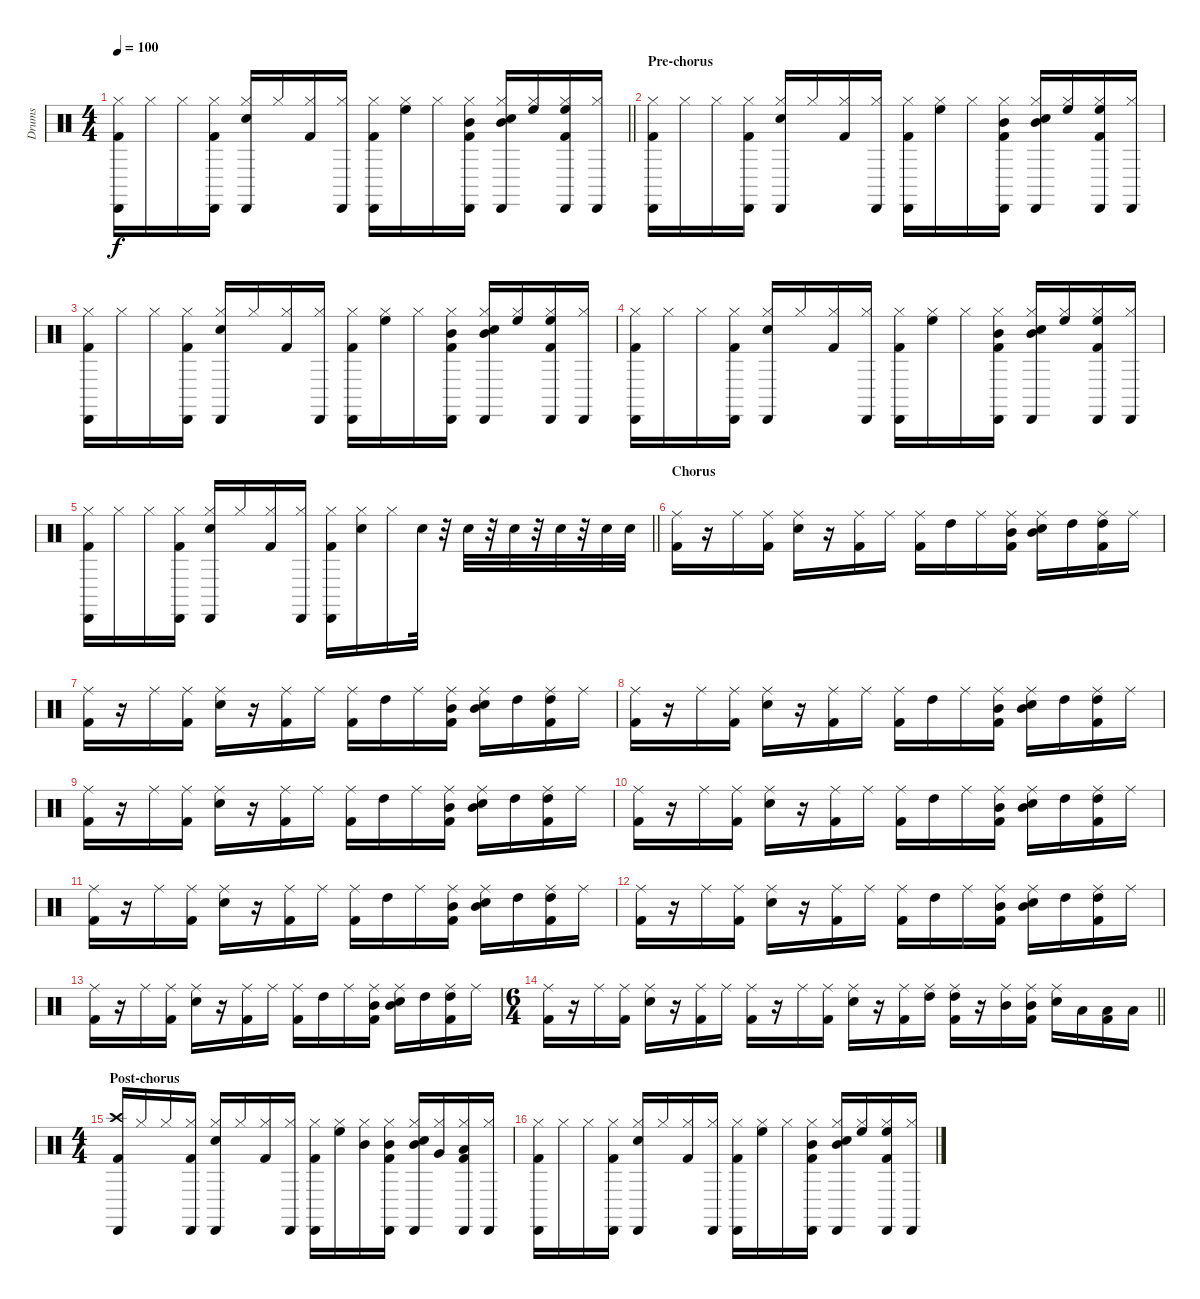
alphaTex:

\track ("Drums" "Drums") {instrument percussion}
\staff {score}
\articulation defaults
\ts (4 4)
\tempo 100
\clef neutral
\barLineRight lightlight
\ks c
("Hi-Hat (closed)" "Cabasa (hit)" "Kick (hit) 2").16{dy f} "Hi-Hat (closed)".16 "Hi-Hat (closed)".16 ("Hi-Hat (closed)" "Cabasa (hit)" "Kick (hit) 2").16 ("Hi-Hat (closed)" "Cabasa (hit)" "Snare (hit) 2").16 "Hi-Hat (closed)".16 ("Hi-Hat (closed)" "Kick (hit) 2").16 ("Hi-Hat (closed)" "Cabasa (hit)").16 ("Hi-Hat (closed)" "Cabasa (hit)" "Kick (hit) 2").16 ("Hi-Hat (closed)" "High Floor Tom (hit)").16 "Hi-Hat (closed)".16 ("Hi-Hat (closed)" "Cabasa (hit)" "Mid Tom (hit)" "Kick (hit) 2").16 ("Hi-Hat (closed)" "Cabasa (hit)" "Mid Tom (hit)" "Snare (hit) 2").16 ("Hi-Hat (closed)" "High Floor Tom (hit)").16 ("Hi-Hat (closed)" "Cabasa (hit)" "High Floor Tom (hit)" "Kick (hit) 2").16 ("Hi-Hat (closed)" "Cabasa (hit)").16 |
\section ("" "Pre-chorus")
("Hi-Hat (closed)" "Cabasa (hit)" "Kick (hit) 2").16 "Hi-Hat (closed)".16 "Hi-Hat (closed)".16 ("Hi-Hat (closed)" "Cabasa (hit)" "Kick (hit) 2").16 ("Hi-Hat (closed)" "Cabasa (hit)" "Snare (hit) 2").16 "Hi-Hat (closed)".16 ("Hi-Hat (closed)" "Kick (hit) 2").16 ("Hi-Hat (closed)" "Cabasa (hit)").16 ("Hi-Hat (closed)" "Cabasa (hit)" "Kick (hit) 2").16 ("Hi-Hat (closed)" "High Floor Tom (hit)").16 "Hi-Hat (closed)".16 ("Hi-Hat (closed)" "Cabasa (hit)" "Mid Tom (hit)" "Kick (hit) 2").16 ("Hi-Hat (closed)" "Cabasa (hit)" "Mid Tom (hit)" "Snare (hit) 2").16 ("Hi-Hat (closed)" "High Floor Tom (hit)").16 ("Hi-Hat (closed)" "Cabasa (hit)" "High Floor Tom (hit)" "Kick (hit) 2").16 ("Hi-Hat (closed)" "Cabasa (hit)").16 |
("Hi-Hat (closed)" "Cabasa (hit)" "Kick (hit) 2").16 "Hi-Hat (closed)".16 "Hi-Hat (closed)".16 ("Hi-Hat (closed)" "Cabasa (hit)" "Kick (hit) 2").16 ("Hi-Hat (closed)" "Cabasa (hit)" "Snare (hit) 2").16 "Hi-Hat (closed)".16 ("Hi-Hat (closed)" "Kick (hit) 2").16 ("Hi-Hat (closed)" "Cabasa (hit)").16 ("Hi-Hat (closed)" "Cabasa (hit)" "Kick (hit) 2").16 ("Hi-Hat (closed)" "High Floor Tom (hit)").16 "Hi-Hat (closed)".16 ("Hi-Hat (closed)" "Cabasa (hit)" "Mid Tom (hit)" "Kick (hit) 2").16 ("Hi-Hat (closed)" "Cabasa (hit)" "Mid Tom (hit)" "Snare (hit) 2").16 ("Hi-Hat (closed)" "High Floor Tom (hit)").16 ("Hi-Hat (closed)" "Cabasa (hit)" "High Floor Tom (hit)" "Kick (hit) 2").16 ("Hi-Hat (closed)" "Cabasa (hit)").16 |
("Hi-Hat (closed)" "Cabasa (hit)" "Kick (hit) 2").16 "Hi-Hat (closed)".16 "Hi-Hat (closed)".16 ("Hi-Hat (closed)" "Cabasa (hit)" "Kick (hit) 2").16 ("Hi-Hat (closed)" "Cabasa (hit)" "Snare (hit) 2").16 "Hi-Hat (closed)".16 ("Hi-Hat (closed)" "Kick (hit) 2").16 ("Hi-Hat (closed)" "Cabasa (hit)").16 ("Hi-Hat (closed)" "Cabasa (hit)" "Kick (hit) 2").16 ("Hi-Hat (closed)" "High Floor Tom (hit)").16 "Hi-Hat (closed)".16 ("Hi-Hat (closed)" "Cabasa (hit)" "Mid Tom (hit)" "Kick (hit) 2").16 ("Hi-Hat (closed)" "Cabasa (hit)" "Mid Tom (hit)" "Snare (hit) 2").16 ("Hi-Hat (closed)" "High Floor Tom (hit)").16 ("Hi-Hat (closed)" "Cabasa (hit)" "High Floor Tom (hit)" "Kick (hit) 2").16 ("Hi-Hat (closed)" "Cabasa (hit)").16 |
\barLineRight lightlight
("Hi-Hat (closed)" "Cabasa (hit)" "Kick (hit) 2").16 "Hi-Hat (closed)".16 "Hi-Hat (closed)".16 ("Hi-Hat (closed)" "Cabasa (hit)" "Kick (hit) 2").16 ("Hi-Hat (closed)" "Cabasa (hit)" "Snare (hit) 2").16 "Hi-Hat (closed)".16 ("Hi-Hat (closed)" "Kick (hit) 2").16 ("Hi-Hat (closed)" "Cabasa (hit)").16 ("Hi-Hat (closed)" "Cabasa (hit)" "Kick (hit) 2").16 ("Hi-Hat (closed)" "Snare (hit) 2").16 "Hi-Hat (closed)".16 "Snare (hit) 2".32 r.32 "Snare (hit) 2".32 r.32 "Snare (hit) 2".32 r.32 "Snare (hit) 2".32 r.32 "Snare (hit) 2".32 "Snare (hit) 2".32 |
\section ("" "Chorus")
("Ride (middle)" "Kick (hit) 2").16 r.16 "Ride (middle)".16 ("Ride (middle)" "Kick (hit) 2").16 ("Ride (middle)" "Snare (hit) 2").16 r.16 ("Ride (middle)" "Kick (hit) 2").16 "Ride (middle)".16 ("Ride (middle)" "Kick (hit) 2").16 "High Tom (hit)".16 "Ride (middle)".16 ("Ride (middle)" "Mid Tom (hit)" "Kick (hit) 2").16 ("Ride (middle)" "Mid Tom (hit)" "Snare (hit) 2").16 "High Tom (hit)".16 ("Ride (middle)" "High Tom (hit)" "Kick (hit) 2").16 "Ride (middle)".16 |
("Ride (middle)" "Kick (hit) 2").16 r.16 "Ride (middle)".16 ("Ride (middle)" "Kick (hit) 2").16 ("Ride (middle)" "Snare (hit) 2").16 r.16 ("Ride (middle)" "Kick (hit) 2").16 "Ride (middle)".16 ("Ride (middle)" "Kick (hit) 2").16 "High Tom (hit)".16 "Ride (middle)".16 ("Ride (middle)" "Mid Tom (hit)" "Kick (hit) 2").16 ("Ride (middle)" "Mid Tom (hit)" "Snare (hit) 2").16 "High Tom (hit)".16 ("Ride (middle)" "High Tom (hit)" "Kick (hit) 2").16 "Ride (middle)".16 |
("Ride (middle)" "Kick (hit) 2").16 r.16 "Ride (middle)".16 ("Ride (middle)" "Kick (hit) 2").16 ("Ride (middle)" "Snare (hit) 2").16 r.16 ("Ride (middle)" "Kick (hit) 2").16 "Ride (middle)".16 ("Ride (middle)" "Kick (hit) 2").16 "High Tom (hit)".16 "Ride (middle)".16 ("Ride (middle)" "Mid Tom (hit)" "Kick (hit) 2").16 ("Ride (middle)" "Mid Tom (hit)" "Snare (hit) 2").16 "High Tom (hit)".16 ("Ride (middle)" "High Tom (hit)" "Kick (hit) 2").16 "Ride (middle)".16 |
("Ride (middle)" "Kick (hit) 2").16 r.16 "Ride (middle)".16 ("Ride (middle)" "Kick (hit) 2").16 ("Ride (middle)" "Snare (hit) 2").16 r.16 ("Ride (middle)" "Kick (hit) 2").16 "Ride (middle)".16 ("Ride (middle)" "Kick (hit) 2").16 "High Tom (hit)".16 "Ride (middle)".16 ("Ride (middle)" "Mid Tom (hit)" "Kick (hit) 2").16 ("Ride (middle)" "Mid Tom (hit)" "Snare (hit) 2").16 "High Tom (hit)".16 ("Ride (middle)" "High Tom (hit)" "Kick (hit) 2").16 "Ride (middle)".16 |
("Ride (middle)" "Kick (hit) 2").16 r.16 "Ride (middle)".16 ("Ride (middle)" "Kick (hit) 2").16 ("Ride (middle)" "Snare (hit) 2").16 r.16 ("Ride (middle)" "Kick (hit) 2").16 "Ride (middle)".16 ("Ride (middle)" "Kick (hit) 2").16 "High Tom (hit)".16 "Ride (middle)".16 ("Ride (middle)" "Mid Tom (hit)" "Kick (hit) 2").16 ("Ride (middle)" "Mid Tom (hit)" "Snare (hit) 2").16 "High Tom (hit)".16 ("Ride (middle)" "High Tom (hit)" "Kick (hit) 2").16 "Ride (middle)".16 |
("Ride (middle)" "Kick (hit) 2").16 r.16 "Ride (middle)".16 ("Ride (middle)" "Kick (hit) 2").16 ("Ride (middle)" "Snare (hit) 2").16 r.16 ("Ride (middle)" "Kick (hit) 2").16 "Ride (middle)".16 ("Ride (middle)" "Kick (hit) 2").16 "High Tom (hit)".16 "Ride (middle)".16 ("Ride (middle)" "Mid Tom (hit)" "Kick (hit) 2").16 ("Ride (middle)" "Mid Tom (hit)" "Snare (hit) 2").16 "High Tom (hit)".16 ("Ride (middle)" "High Tom (hit)" "Kick (hit) 2").16 "Ride (middle)".16 |
("Ride (middle)" "Kick (hit) 2").16 r.16 "Ride (middle)".16 ("Ride (middle)" "Kick (hit) 2").16 ("Ride (middle)" "Snare (hit) 2").16 r.16 ("Ride (middle)" "Kick (hit) 2").16 "Ride (middle)".16 ("Ride (middle)" "Kick (hit) 2").16 "High Tom (hit)".16 "Ride (middle)".16 ("Ride (middle)" "Mid Tom (hit)" "Kick (hit) 2").16 ("Ride (middle)" "Mid Tom (hit)" "Snare (hit) 2").16 "High Tom (hit)".16 ("Ride (middle)" "High Tom (hit)" "Kick (hit) 2").16 "Ride (middle)".16 |
("Ride (middle)" "Kick (hit) 2").16 r.16 "Ride (middle)".16 ("Ride (middle)" "Kick (hit) 2").16 ("Ride (middle)" "Snare (hit) 2").16 r.16 ("Ride (middle)" "Kick (hit) 2").16 "Ride (middle)".16 ("Ride (middle)" "Kick (hit) 2").16 "High Tom (hit)".16 "Ride (middle)".16 ("Ride (middle)" "Mid Tom (hit)" "Kick (hit) 2").16 ("Ride (middle)" "Mid Tom (hit)" "Snare (hit) 2").16 "High Tom (hit)".16 ("Ride (middle)" "High Tom (hit)" "Kick (hit) 2").16 "Ride (middle)".16 |
\ts (6 4)
\barLineRight lightlight
("Ride (middle)" "Kick (hit) 2").16 r.16 "Ride (middle)".16 ("Ride (middle)" "Kick (hit) 2").16 ("Ride (middle)" "Snare (hit) 2").16 r.16 ("Ride (middle)" "Kick (hit) 2").16 "Ride (middle)".16 ("Ride (middle)" "Kick (hit) 2").16 r.16 "Ride (middle)".16 ("Ride (middle)" "Kick (hit) 2").16 ("Ride (middle)" "Snare (hit) 2").16 r.16 ("Ride (middle)" "Kick (hit) 2").16 ("Ride (middle)" "High Tom (hit)").16 ("Ride (middle)" "High Tom (hit)" "Kick (hit) 2").16 r.16 ("Ride (middle)" "Mid Tom (hit)").16 ("Ride (middle)" "Mid Tom (hit)" "Kick (hit) 2").16 ("Ride (middle)" "Snare (hit) 2").16 "Low Tom (hit)".16 ("Low Tom (hit)" "Kick (hit) 2").16 "Low Tom (hit)".16 |
\ts (4 4)
\section ("" "Post-chorus")
("Cabasa (hit)" "Crash high (hit)" "Kick (hit) 2").16 "Hi-Hat (closed)".16 "Hi-Hat (closed)".16 ("Hi-Hat (closed)" "Cabasa (hit)" "Kick (hit) 2").16 ("Hi-Hat (closed)" "Cabasa (hit)" "Snare (hit) 2").16 "Hi-Hat (closed)".16 ("Hi-Hat (closed)" "Kick (hit) 2").16 ("Hi-Hat (closed)" "Cabasa (hit)").16 ("Hi-Hat (closed)" "Cabasa (hit)" "Kick (hit) 2").16 ("Hi-Hat (closed)" "High Floor Tom (hit)").16 ("Hi-Hat (closed)" "Mid Tom (hit)").16 ("Hi-Hat (closed)" "Cabasa (hit)" "Mid Tom (hit)" "Kick (hit) 2").16 ("Hi-Hat (closed)" "Cabasa (hit)" "Mid Tom (hit)" "Snare (hit) 2").16 ("Hi-Hat (closed)" "Very Low Tom (hit)").16 ("Hi-Hat (closed)" "Cabasa (hit)" "Low Tom (hit)" "Kick (hit) 2").16 ("Hi-Hat (closed)" "Cabasa (hit)").16 |
("Hi-Hat (closed)" "Cabasa (hit)" "Kick (hit) 2").16 "Hi-Hat (closed)".16 "Hi-Hat (closed)".16 ("Hi-Hat (closed)" "Cabasa (hit)" "Kick (hit) 2").16 ("Hi-Hat (closed)" "Cabasa (hit)" "Snare (hit) 2").16 "Hi-Hat (closed)".16 ("Hi-Hat (closed)" "Kick (hit) 2").16 ("Hi-Hat (closed)" "Cabasa (hit)").16 ("Hi-Hat (closed)" "Cabasa (hit)" "Kick (hit) 2").16 ("Hi-Hat (closed)" "High Floor Tom (hit)").16 "Hi-Hat (closed)".16 ("Hi-Hat (closed)" "Cabasa (hit)" "Mid Tom (hit)" "Kick (hit) 2").16 ("Hi-Hat (closed)" "Cabasa (hit)" "Mid Tom (hit)" "Snare (hit) 2").16 ("Hi-Hat (closed)" "High Floor Tom (hit)").16 ("Hi-Hat (closed)" "Cabasa (hit)" "High Floor Tom (hit)" "Kick (hit) 2").16 ("Hi-Hat (closed)" "Cabasa (hit)").16
